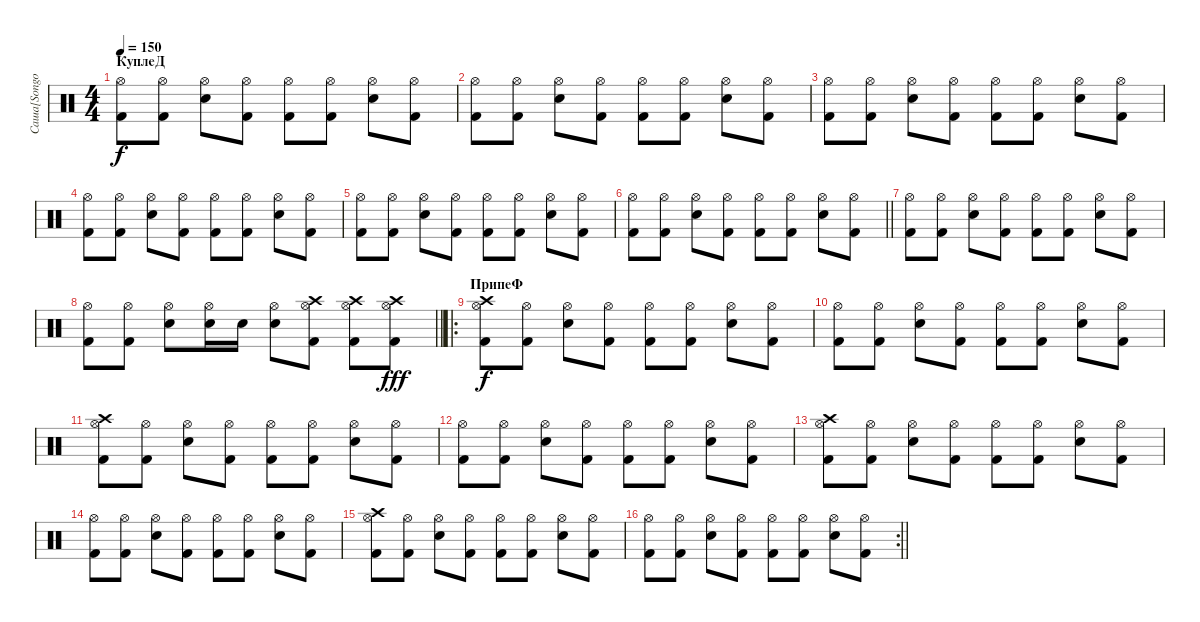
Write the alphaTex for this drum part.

\track ("Саша[Songo]" "Саша[Songo") {instrument percussion}
\staff {score}
\articulation defaults
\ts (4 4)
\section ("" "КуплеД")
\tempo 150
\clef neutral
\ks c
("Hi-Hat (open)" "Kick (hit) 2").8{dy f} ("Hi-Hat (open)" "Kick (hit) 2").8 ("Hi-Hat (open)" "Snare (hit) 2").8 ("Hi-Hat (open)" "Kick (hit) 2").8 ("Hi-Hat (open)" "Kick (hit) 2").8 ("Hi-Hat (open)" "Kick (hit) 2").8 ("Hi-Hat (open)" "Snare (hit) 2").8 ("Hi-Hat (open)" "Kick (hit) 2").8 |
("Hi-Hat (open)" "Kick (hit) 2").8 ("Hi-Hat (open)" "Kick (hit) 2").8 ("Hi-Hat (open)" "Snare (hit) 2").8 ("Hi-Hat (open)" "Kick (hit) 2").8 ("Hi-Hat (open)" "Kick (hit) 2").8 ("Hi-Hat (open)" "Kick (hit) 2").8 ("Hi-Hat (open)" "Snare (hit) 2").8 ("Hi-Hat (open)" "Kick (hit) 2").8 |
("Hi-Hat (open)" "Kick (hit) 2").8 ("Hi-Hat (open)" "Kick (hit) 2").8 ("Hi-Hat (open)" "Snare (hit) 2").8 ("Hi-Hat (open)" "Kick (hit) 2").8 ("Hi-Hat (open)" "Kick (hit) 2").8 ("Hi-Hat (open)" "Kick (hit) 2").8 ("Hi-Hat (open)" "Snare (hit) 2").8 ("Hi-Hat (open)" "Kick (hit) 2").8 |
("Hi-Hat (open)" "Kick (hit) 2").8 ("Hi-Hat (open)" "Kick (hit) 2").8 ("Hi-Hat (open)" "Snare (hit) 2").8 ("Hi-Hat (open)" "Kick (hit) 2").8 ("Hi-Hat (open)" "Kick (hit) 2").8 ("Hi-Hat (open)" "Kick (hit) 2").8 ("Hi-Hat (open)" "Snare (hit) 2").8 ("Hi-Hat (open)" "Kick (hit) 2").8 |
("Hi-Hat (open)" "Kick (hit) 2").8 ("Hi-Hat (open)" "Kick (hit) 2").8 ("Hi-Hat (open)" "Snare (hit) 2").8 ("Hi-Hat (open)" "Kick (hit) 2").8 ("Hi-Hat (open)" "Kick (hit) 2").8 ("Hi-Hat (open)" "Kick (hit) 2").8 ("Hi-Hat (open)" "Snare (hit) 2").8 ("Hi-Hat (open)" "Kick (hit) 2").8 |
\barLineRight lightlight
("Hi-Hat (open)" "Kick (hit) 2").8 ("Hi-Hat (open)" "Kick (hit) 2").8 ("Hi-Hat (open)" "Snare (hit) 2").8 ("Hi-Hat (open)" "Kick (hit) 2").8 ("Hi-Hat (open)" "Kick (hit) 2").8 ("Hi-Hat (open)" "Kick (hit) 2").8 ("Hi-Hat (open)" "Snare (hit) 2").8 ("Hi-Hat (open)" "Kick (hit) 2").8 |
("Hi-Hat (open)" "Kick (hit) 2").8 ("Hi-Hat (open)" "Kick (hit) 2").8 ("Hi-Hat (open)" "Snare (hit) 2").8 ("Hi-Hat (open)" "Kick (hit) 2").8 ("Hi-Hat (open)" "Kick (hit) 2").8 ("Hi-Hat (open)" "Kick (hit) 2").8 ("Hi-Hat (open)" "Snare (hit) 2").8 ("Hi-Hat (open)" "Kick (hit) 2").8 |
\barLineRight lightlight
("Hi-Hat (open)" "Kick (hit) 2").8 ("Hi-Hat (open)" "Kick (hit) 2").8 ("Hi-Hat (open)" "Electric Snare (hit)").8 ("Hi-Hat (open)" "Electric Snare (hit)").16 "Electric Snare (hit)".16 ("Hi-Hat (open)" "Electric Snare (hit)").8 ("Crash high (hit)" "Hi-Hat (open)" "Kick (hit) 2").8 ("Crash high (hit)" "Hi-Hat (open)" "Kick (hit) 2").8 ("Crash high (hit)" "Hi-Hat (open)" "Kick (hit) 2").8{dy fff} |
\ro
\section ("" "ПрипеФ")
("Crash high (hit)" "Hi-Hat (open)" "Kick (hit) 2").8{dy f} ("Hi-Hat (open)" "Kick (hit) 2").8 ("Hi-Hat (open)" "Snare (hit) 2").8 ("Hi-Hat (open)" "Kick (hit) 2").8 ("Hi-Hat (open)" "Kick (hit) 2").8 ("Hi-Hat (open)" "Kick (hit) 2").8 ("Hi-Hat (open)" "Snare (hit) 2").8 ("Hi-Hat (open)" "Kick (hit) 2").8 |
("Hi-Hat (open)" "Kick (hit) 2").8 ("Hi-Hat (open)" "Kick (hit) 2").8 ("Hi-Hat (open)" "Snare (hit) 2").8 ("Hi-Hat (open)" "Kick (hit) 2").8 ("Hi-Hat (open)" "Kick (hit) 2").8 ("Hi-Hat (open)" "Kick (hit) 2").8 ("Hi-Hat (open)" "Snare (hit) 2").8 ("Hi-Hat (open)" "Kick (hit) 2").8 |
("Crash high (hit)" "Hi-Hat (open)" "Kick (hit) 2").8 ("Hi-Hat (open)" "Kick (hit) 2").8 ("Hi-Hat (open)" "Snare (hit) 2").8 ("Hi-Hat (open)" "Kick (hit) 2").8 ("Hi-Hat (open)" "Kick (hit) 2").8 ("Hi-Hat (open)" "Kick (hit) 2").8 ("Hi-Hat (open)" "Snare (hit) 2").8 ("Hi-Hat (open)" "Kick (hit) 2").8 |
("Hi-Hat (open)" "Kick (hit) 2").8 ("Hi-Hat (open)" "Kick (hit) 2").8 ("Hi-Hat (open)" "Snare (hit) 2").8 ("Hi-Hat (open)" "Kick (hit) 2").8 ("Hi-Hat (open)" "Kick (hit) 2").8 ("Hi-Hat (open)" "Kick (hit) 2").8 ("Hi-Hat (open)" "Snare (hit) 2").8 ("Hi-Hat (open)" "Kick (hit) 2").8 |
("Crash high (hit)" "Hi-Hat (open)" "Kick (hit) 2").8 ("Hi-Hat (open)" "Kick (hit) 2").8 ("Hi-Hat (open)" "Snare (hit) 2").8 ("Hi-Hat (open)" "Kick (hit) 2").8 ("Hi-Hat (open)" "Kick (hit) 2").8 ("Hi-Hat (open)" "Kick (hit) 2").8 ("Hi-Hat (open)" "Snare (hit) 2").8 ("Hi-Hat (open)" "Kick (hit) 2").8 |
("Hi-Hat (open)" "Kick (hit) 2").8 ("Hi-Hat (open)" "Kick (hit) 2").8 ("Hi-Hat (open)" "Snare (hit) 2").8 ("Hi-Hat (open)" "Kick (hit) 2").8 ("Hi-Hat (open)" "Kick (hit) 2").8 ("Hi-Hat (open)" "Kick (hit) 2").8 ("Hi-Hat (open)" "Snare (hit) 2").8 ("Hi-Hat (open)" "Kick (hit) 2").8 |
("Crash high (hit)" "Hi-Hat (open)" "Kick (hit) 2").8 ("Hi-Hat (open)" "Kick (hit) 2").8 ("Hi-Hat (open)" "Snare (hit) 2").8 ("Hi-Hat (open)" "Kick (hit) 2").8 ("Hi-Hat (open)" "Kick (hit) 2").8 ("Hi-Hat (open)" "Kick (hit) 2").8 ("Hi-Hat (open)" "Snare (hit) 2").8 ("Hi-Hat (open)" "Kick (hit) 2").8 |
\rc 2
\barLineRight lightlight
("Hi-Hat (open)" "Kick (hit) 2").8 ("Hi-Hat (open)" "Kick (hit) 2").8 ("Hi-Hat (open)" "Snare (hit) 2").8 ("Hi-Hat (open)" "Kick (hit) 2").8 ("Hi-Hat (open)" "Kick (hit) 2").8 ("Hi-Hat (open)" "Kick (hit) 2").8 ("Hi-Hat (open)" "Snare (hit) 2").8 ("Hi-Hat (open)" "Kick (hit) 2").8
